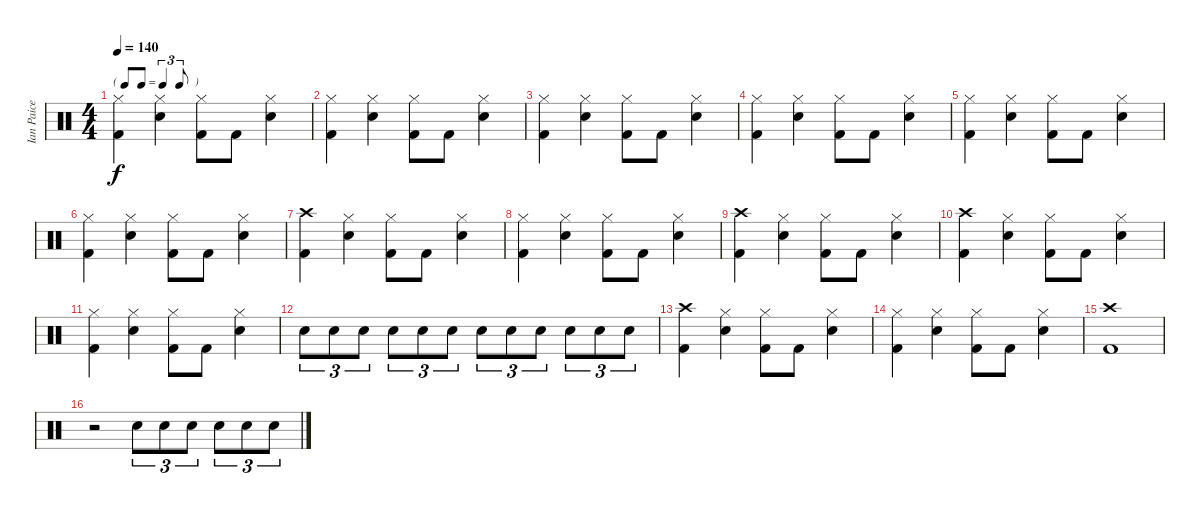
\track ("Ian Paice" "Ian Paice") {instrument percussion}
\staff {score}
\articulation defaults
\ts (4 4)
\tf triplet8th
\tempo 140
\clef neutral
\ks c
("Hi-Hat (closed)" "Kick (hit) 2").4{dy f} ("Hi-Hat (closed)" "Electric Snare (hit)").4 ("Hi-Hat (closed)" "Kick (hit) 2").8 "Kick (hit) 2".8 ("Hi-Hat (closed)" "Electric Snare (hit)").4 |
("Hi-Hat (closed)" "Kick (hit) 2").4 ("Hi-Hat (closed)" "Electric Snare (hit)").4 ("Hi-Hat (closed)" "Kick (hit) 2").8 "Kick (hit) 2".8 ("Hi-Hat (closed)" "Electric Snare (hit)").4 |
("Hi-Hat (closed)" "Kick (hit) 2").4 ("Hi-Hat (closed)" "Electric Snare (hit)").4 ("Hi-Hat (closed)" "Kick (hit) 2").8 "Kick (hit) 2".8 ("Hi-Hat (closed)" "Electric Snare (hit)").4 |
("Hi-Hat (closed)" "Kick (hit) 2").4 ("Hi-Hat (closed)" "Electric Snare (hit)").4 ("Hi-Hat (closed)" "Kick (hit) 2").8 "Kick (hit) 2".8 ("Hi-Hat (closed)" "Electric Snare (hit)").4 |
("Hi-Hat (closed)" "Kick (hit) 2").4 ("Hi-Hat (closed)" "Electric Snare (hit)").4 ("Hi-Hat (closed)" "Kick (hit) 2").8 "Kick (hit) 2".8 ("Hi-Hat (closed)" "Electric Snare (hit)").4 |
("Hi-Hat (closed)" "Kick (hit) 2").4 ("Hi-Hat (closed)" "Electric Snare (hit)").4 ("Hi-Hat (closed)" "Kick (hit) 2").8 "Kick (hit) 2".8 ("Hi-Hat (closed)" "Electric Snare (hit)").4 |
("Crash high (hit)" "Kick (hit) 2").4 ("Hi-Hat (closed)" "Electric Snare (hit)").4 ("Hi-Hat (closed)" "Kick (hit) 2").8 "Kick (hit) 2".8 ("Hi-Hat (closed)" "Electric Snare (hit)").4 |
("Hi-Hat (closed)" "Kick (hit) 2").4 ("Hi-Hat (closed)" "Electric Snare (hit)").4 ("Hi-Hat (closed)" "Kick (hit) 2").8 "Kick (hit) 2".8 ("Hi-Hat (closed)" "Electric Snare (hit)").4 |
("Crash high (hit)" "Kick (hit) 2").4 ("Hi-Hat (closed)" "Electric Snare (hit)").4 ("Hi-Hat (closed)" "Kick (hit) 2").8 "Kick (hit) 2".8 ("Hi-Hat (closed)" "Electric Snare (hit)").4 |
("Crash high (hit)" "Kick (hit) 2").4 ("Hi-Hat (closed)" "Electric Snare (hit)").4 ("Hi-Hat (closed)" "Kick (hit) 2").8 "Kick (hit) 2".8 ("Hi-Hat (closed)" "Electric Snare (hit)").4 |
("Hi-Hat (closed)" "Kick (hit) 2").4 ("Hi-Hat (closed)" "Electric Snare (hit)").4 ("Hi-Hat (closed)" "Kick (hit) 2").8 "Kick (hit) 2".8 ("Hi-Hat (closed)" "Electric Snare (hit)").4 |
"Electric Snare (hit)".8{tu (3 2)} "Electric Snare (hit)".8{tu (3 2)} "Electric Snare (hit)".8{tu (3 2)} "Electric Snare (hit)".8{tu (3 2)} "Electric Snare (hit)".8{tu (3 2)} "Electric Snare (hit)".8{tu (3 2)} "Electric Snare (hit)".8{tu (3 2)} "Electric Snare (hit)".8{tu (3 2)} "Electric Snare (hit)".8{tu (3 2)} "Electric Snare (hit)".8{tu (3 2)} "Electric Snare (hit)".8{tu (3 2)} "Electric Snare (hit)".8{tu (3 2)} |
("Crash high (hit)" "Kick (hit) 2").4 ("Hi-Hat (closed)" "Electric Snare (hit)").4 ("Hi-Hat (closed)" "Kick (hit) 2").8 "Kick (hit) 2".8 ("Hi-Hat (closed)" "Electric Snare (hit)").4 |
("Hi-Hat (closed)" "Kick (hit) 2").4 ("Hi-Hat (closed)" "Electric Snare (hit)").4 ("Hi-Hat (closed)" "Kick (hit) 2").8 "Kick (hit) 2".8 ("Hi-Hat (closed)" "Electric Snare (hit)").4 |
("Crash high (hit)" "Kick (hit) 2").1 |
r.2 "Electric Snare (hit)".8{tu (3 2)} "Electric Snare (hit)".8{tu (3 2)} "Electric Snare (hit)".8{tu (3 2)} "Electric Snare (hit)".8{tu (3 2)} "Electric Snare (hit)".8{tu (3 2)} "Electric Snare (hit)".8{tu (3 2)}
